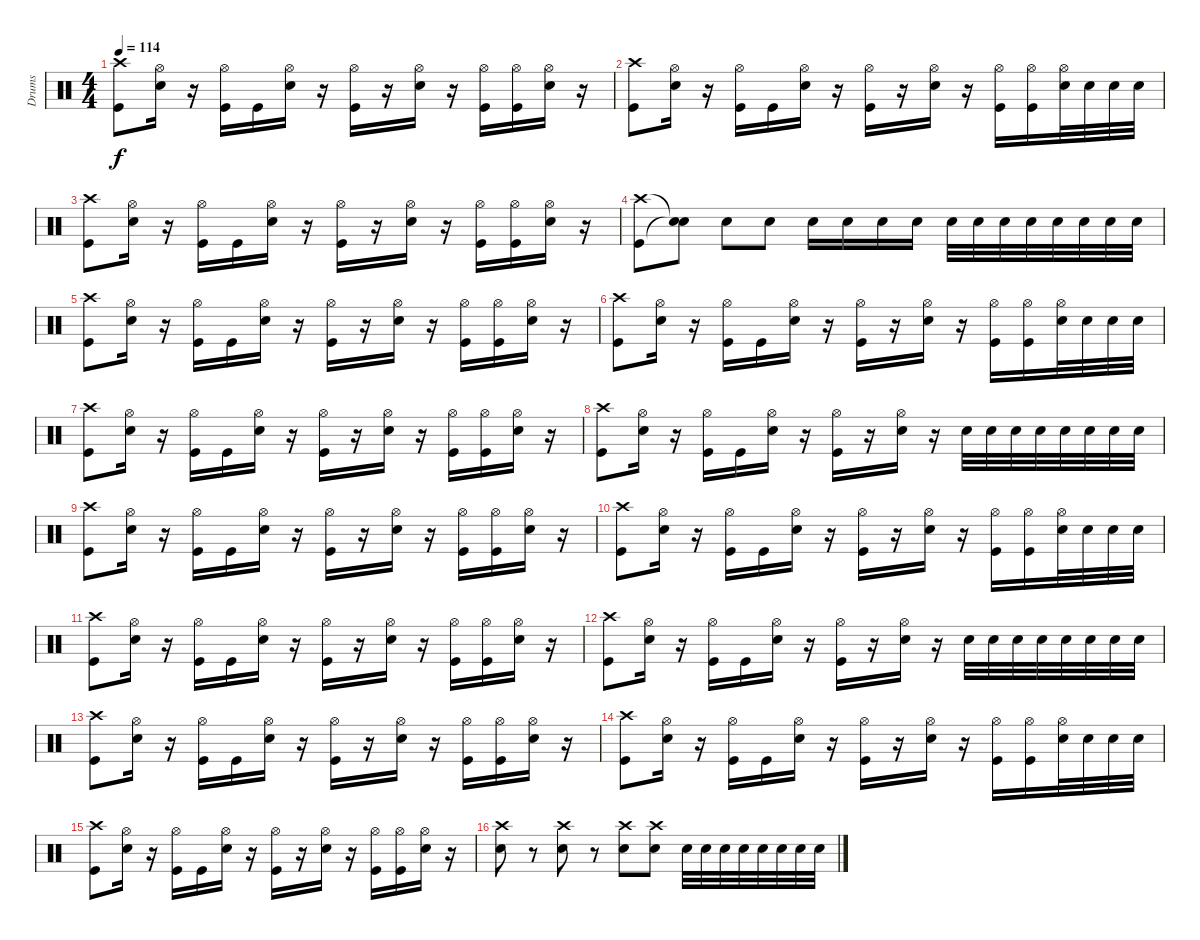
\track ("Drums" "Drums") {instrument percussion}
\staff {score}
\articulation defaults
\ts (4 4)
\tempo 114
\clef neutral
\ks c
("Crash high (hit)" "Kick (hit)").8{dy f} ("Hi-Hat (open)" "Snare (hit) 2").16 r.16 ("Hi-Hat (open)" "Kick (hit)").16 "Kick (hit)".16 ("Hi-Hat (open)" "Snare (hit) 2").16 r.16 ("Hi-Hat (open)" "Kick (hit)").16 r.16 ("Hi-Hat (open)" "Snare (hit) 2").16 r.16 ("Hi-Hat (open)" "Kick (hit)").16 ("Hi-Hat (open)" "Kick (hit)").16 ("Hi-Hat (open)" "Snare (hit) 2").16 r.16 |
("Crash high (hit)" "Kick (hit)").8 ("Hi-Hat (open)" "Snare (hit) 2").16 r.16 ("Hi-Hat (open)" "Kick (hit)").16 "Kick (hit)".16 ("Hi-Hat (open)" "Snare (hit) 2").16 r.16 ("Hi-Hat (open)" "Kick (hit)").16 r.16 ("Hi-Hat (open)" "Snare (hit) 2").16 r.16 ("Hi-Hat (open)" "Kick (hit)").16 ("Hi-Hat (open)" "Kick (hit)").16 ("Hi-Hat (open)" "Snare (hit) 2").32 "Snare (hit) 2".32 "Snare (hit) 2".32 "Snare (hit) 2".32 |
("Crash high (hit)" "Kick (hit)").8 ("Hi-Hat (open)" "Snare (hit) 2").16 r.16 ("Hi-Hat (open)" "Kick (hit)").16 "Kick (hit)".16 ("Hi-Hat (open)" "Snare (hit) 2").16 r.16 ("Hi-Hat (open)" "Kick (hit)").16 r.16 ("Hi-Hat (open)" "Snare (hit) 2").16 r.16 ("Hi-Hat (open)" "Kick (hit)").16 ("Hi-Hat (open)" "Kick (hit)").16 ("Hi-Hat (open)" "Snare (hit) 2").16 r.16 |
("Crash high (hit)" "Kick (hit)").8 ("Snare (hit)"{t} "Snare (hit)"{t}).8 "Snare (hit) 2".8 "Snare (hit) 2".8 "Snare (hit) 2".16 "Snare (hit) 2".16 "Snare (hit) 2".16 "Snare (hit) 2".16 "Snare (hit) 2".32 "Snare (hit) 2".32 "Snare (hit) 2".32 "Snare (hit) 2".32 "Snare (hit) 2".32 "Snare (hit) 2".32 "Snare (hit) 2".32 "Snare (hit) 2".32 |
("Crash high (hit)" "Kick (hit)").8 ("Hi-Hat (open)" "Snare (hit) 2").16 r.16 ("Hi-Hat (open)" "Kick (hit)").16 "Kick (hit)".16 ("Hi-Hat (open)" "Snare (hit) 2").16 r.16 ("Hi-Hat (open)" "Kick (hit)").16 r.16 ("Hi-Hat (open)" "Snare (hit) 2").16 r.16 ("Hi-Hat (open)" "Kick (hit)").16 ("Hi-Hat (open)" "Kick (hit)").16 ("Hi-Hat (open)" "Snare (hit) 2").16 r.16 |
("Crash high (hit)" "Kick (hit)").8 ("Hi-Hat (open)" "Snare (hit) 2").16 r.16 ("Hi-Hat (open)" "Kick (hit)").16 "Kick (hit)".16 ("Hi-Hat (open)" "Snare (hit) 2").16 r.16 ("Hi-Hat (open)" "Kick (hit)").16 r.16 ("Hi-Hat (open)" "Snare (hit) 2").16 r.16 ("Hi-Hat (open)" "Kick (hit)").16 ("Hi-Hat (open)" "Kick (hit)").16 ("Hi-Hat (open)" "Snare (hit) 2").32 "Snare (hit) 2".32 "Snare (hit) 2".32 "Snare (hit) 2".32 |
("Crash high (hit)" "Kick (hit)").8 ("Hi-Hat (open)" "Snare (hit) 2").16 r.16 ("Hi-Hat (open)" "Kick (hit)").16 "Kick (hit)".16 ("Hi-Hat (open)" "Snare (hit) 2").16 r.16 ("Hi-Hat (open)" "Kick (hit)").16 r.16 ("Hi-Hat (open)" "Snare (hit) 2").16 r.16 ("Hi-Hat (open)" "Kick (hit)").16 ("Hi-Hat (open)" "Kick (hit)").16 ("Hi-Hat (open)" "Snare (hit) 2").16 r.16 |
("Crash high (hit)" "Kick (hit)").8 ("Hi-Hat (open)" "Snare (hit) 2").16 r.16 ("Hi-Hat (open)" "Kick (hit)").16 "Kick (hit)".16 ("Hi-Hat (open)" "Snare (hit) 2").16 r.16 ("Hi-Hat (open)" "Kick (hit)").16 r.16 ("Hi-Hat (open)" "Snare (hit) 2").16 r.16 "Snare (hit) 2".32 "Snare (hit) 2".32 "Snare (hit) 2".32 "Snare (hit) 2".32 "Snare (hit) 2".32 "Snare (hit) 2".32 "Snare (hit) 2".32 "Snare (hit) 2".32 |
("Crash high (hit)" "Kick (hit)").8 ("Hi-Hat (open)" "Snare (hit) 2").16 r.16 ("Hi-Hat (open)" "Kick (hit)").16 "Kick (hit)".16 ("Hi-Hat (open)" "Snare (hit) 2").16 r.16 ("Hi-Hat (open)" "Kick (hit)").16 r.16 ("Hi-Hat (open)" "Snare (hit) 2").16 r.16 ("Hi-Hat (open)" "Kick (hit)").16 ("Hi-Hat (open)" "Kick (hit)").16 ("Hi-Hat (open)" "Snare (hit) 2").16 r.16 |
("Crash high (hit)" "Kick (hit)").8 ("Hi-Hat (open)" "Snare (hit) 2").16 r.16 ("Hi-Hat (open)" "Kick (hit)").16 "Kick (hit)".16 ("Hi-Hat (open)" "Snare (hit) 2").16 r.16 ("Hi-Hat (open)" "Kick (hit)").16 r.16 ("Hi-Hat (open)" "Snare (hit) 2").16 r.16 ("Hi-Hat (open)" "Kick (hit)").16 ("Hi-Hat (open)" "Kick (hit)").16 ("Hi-Hat (open)" "Snare (hit) 2").32 "Snare (hit) 2".32 "Snare (hit) 2".32 "Snare (hit) 2".32 |
("Crash high (hit)" "Kick (hit)").8 ("Hi-Hat (open)" "Snare (hit) 2").16 r.16 ("Hi-Hat (open)" "Kick (hit)").16 "Kick (hit)".16 ("Hi-Hat (open)" "Snare (hit) 2").16 r.16 ("Hi-Hat (open)" "Kick (hit)").16 r.16 ("Hi-Hat (open)" "Snare (hit) 2").16 r.16 ("Hi-Hat (open)" "Kick (hit)").16 ("Hi-Hat (open)" "Kick (hit)").16 ("Hi-Hat (open)" "Snare (hit) 2").16 r.16 |
("Crash high (hit)" "Kick (hit)").8 ("Hi-Hat (open)" "Snare (hit) 2").16 r.16 ("Hi-Hat (open)" "Kick (hit)").16 "Kick (hit)".16 ("Hi-Hat (open)" "Snare (hit) 2").16 r.16 ("Hi-Hat (open)" "Kick (hit)").16 r.16 ("Hi-Hat (open)" "Snare (hit) 2").16 r.16 "Snare (hit) 2".32 "Snare (hit) 2".32 "Snare (hit) 2".32 "Snare (hit) 2".32 "Snare (hit) 2".32 "Snare (hit) 2".32 "Snare (hit) 2".32 "Snare (hit) 2".32 |
("Crash high (hit)" "Kick (hit)").8 ("Hi-Hat (open)" "Snare (hit) 2").16 r.16 ("Hi-Hat (open)" "Kick (hit)").16 "Kick (hit)".16 ("Hi-Hat (open)" "Snare (hit) 2").16 r.16 ("Hi-Hat (open)" "Kick (hit)").16 r.16 ("Hi-Hat (open)" "Snare (hit) 2").16 r.16 ("Hi-Hat (open)" "Kick (hit)").16 ("Hi-Hat (open)" "Kick (hit)").16 ("Hi-Hat (open)" "Snare (hit) 2").16 r.16 |
("Crash high (hit)" "Kick (hit)").8 ("Hi-Hat (open)" "Snare (hit) 2").16 r.16 ("Hi-Hat (open)" "Kick (hit)").16 "Kick (hit)".16 ("Hi-Hat (open)" "Snare (hit) 2").16 r.16 ("Hi-Hat (open)" "Kick (hit)").16 r.16 ("Hi-Hat (open)" "Snare (hit) 2").16 r.16 ("Hi-Hat (open)" "Kick (hit)").16 ("Hi-Hat (open)" "Kick (hit)").16 ("Hi-Hat (open)" "Snare (hit) 2").32 "Snare (hit) 2".32 "Snare (hit) 2".32 "Snare (hit) 2".32 |
("Crash high (hit)" "Kick (hit)").8 ("Hi-Hat (open)" "Snare (hit) 2").16 r.16 ("Hi-Hat (open)" "Kick (hit)").16 "Kick (hit)".16 ("Hi-Hat (open)" "Snare (hit) 2").16 r.16 ("Hi-Hat (open)" "Kick (hit)").16 r.16 ("Hi-Hat (open)" "Snare (hit) 2").16 r.16 ("Hi-Hat (open)" "Kick (hit)").16 ("Hi-Hat (open)" "Kick (hit)").16 ("Hi-Hat (open)" "Snare (hit) 2").16 r.16 |
("Crash high (hit)" "Snare (hit) 2").8 r.8 ("Crash high (hit)" "Snare (hit) 2").8 r.8 ("Crash high (hit)" "Snare (hit) 2").8 ("Crash high (hit)" "Snare (hit) 2").8 "Snare (hit) 2".32 "Snare (hit) 2".32 "Snare (hit) 2".32 "Snare (hit) 2".32 "Snare (hit) 2".32 "Snare (hit) 2".32 "Snare (hit) 2".32 "Snare (hit) 2".32
